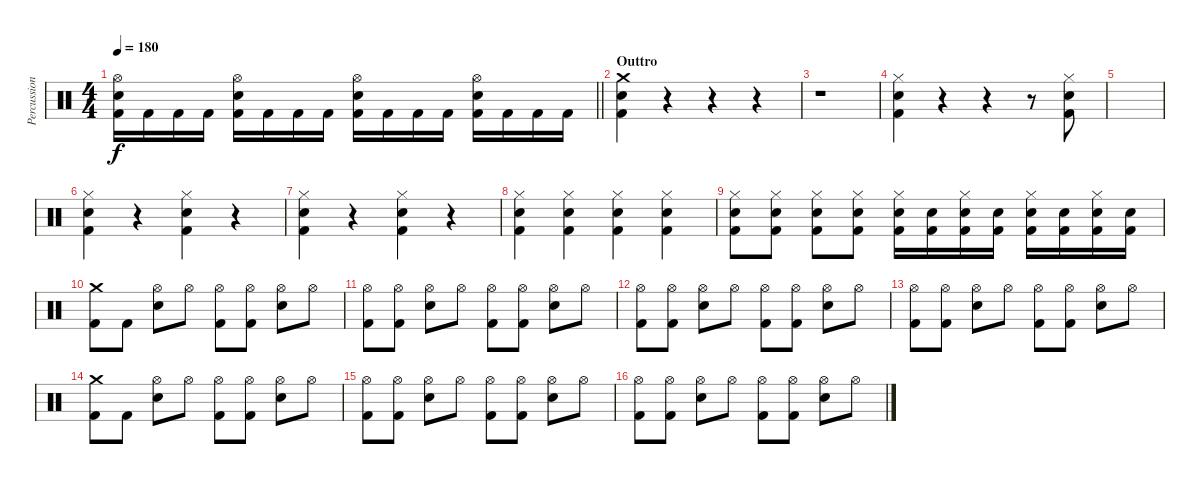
\track ("Percussion" "Percussion") {instrument percussion}
\staff {score}
\articulation defaults
\ts (4 4)
\tempo 180
\clef neutral
\barLineRight lightlight
\ks c
("Hi-Hat (open)" "Electric Snare (hit)" "Kick (hit) 2").16{dy f} "Kick (hit) 2".16 "Kick (hit) 2".16 "Kick (hit) 2".16 ("Hi-Hat (open)" "Electric Snare (hit)" "Kick (hit) 2").16 "Kick (hit) 2".16 "Kick (hit) 2".16 "Kick (hit) 2".16 ("Hi-Hat (open)" "Electric Snare (hit)" "Kick (hit) 2").16 "Kick (hit) 2".16 "Kick (hit) 2".16 "Kick (hit) 2".16 ("Hi-Hat (open)" "Electric Snare (hit)" "Kick (hit) 2").16 "Kick (hit) 2".16 "Kick (hit) 2".16 "Kick (hit) 2".16 |
\section ("" "Outtro")
("Crash medium (hit)" "Electric Snare (hit)" "Kick (hit) 2").4 r.4 r.4 r.4 |
r.1 |
("Hi-Hat (closed)" "Electric Snare (hit)" "Kick (hit) 2").4 r.4 r.4 r.8 ("Hi-Hat (closed)" "Electric Snare (hit)" "Kick (hit) 2").8 |
|
("Hi-Hat (closed)" "Electric Snare (hit)" "Kick (hit) 2").4 r.4 ("Hi-Hat (closed)" "Electric Snare (hit)" "Kick (hit) 2").4 r.4 |
("Hi-Hat (closed)" "Electric Snare (hit)" "Kick (hit) 2").4 r.4 ("Hi-Hat (closed)" "Electric Snare (hit)" "Kick (hit) 2").4 r.4 |
("Hi-Hat (closed)" "Electric Snare (hit)" "Kick (hit) 2").4 ("Hi-Hat (closed)" "Electric Snare (hit)" "Kick (hit) 2").4 ("Hi-Hat (closed)" "Electric Snare (hit)" "Kick (hit) 2").4 ("Hi-Hat (closed)" "Electric Snare (hit)" "Kick (hit) 2").4 |
("Hi-Hat (closed)" "Electric Snare (hit)" "Kick (hit) 2").8 ("Hi-Hat (closed)" "Electric Snare (hit)" "Kick (hit) 2").8 ("Hi-Hat (closed)" "Electric Snare (hit)" "Kick (hit) 2").8 ("Hi-Hat (closed)" "Electric Snare (hit)" "Kick (hit) 2").8 ("Hi-Hat (closed)" "Electric Snare (hit)" "Kick (hit) 2").16 ("Electric Snare (hit)" "Kick (hit) 2").16 ("Hi-Hat (closed)" "Electric Snare (hit)" "Kick (hit) 2").16 ("Electric Snare (hit)" "Kick (hit) 2").16 ("Hi-Hat (closed)" "Electric Snare (hit)" "Kick (hit) 2").16 ("Electric Snare (hit)" "Kick (hit) 2").16 ("Hi-Hat (closed)" "Electric Snare (hit)" "Kick (hit) 2").16 ("Electric Snare (hit)" "Kick (hit) 2").16 |
("Crash medium (hit)" "Kick (hit) 2").8 "Kick (hit) 2".8 ("Hi-Hat (open)" "Electric Snare (hit)").8 "Hi-Hat (open)".8 ("Hi-Hat (open)" "Kick (hit) 2").8 ("Hi-Hat (open)" "Kick (hit) 2").8 ("Hi-Hat (open)" "Electric Snare (hit)").8 "Hi-Hat (open)".8 |
("Hi-Hat (open)" "Kick (hit) 2").8 ("Hi-Hat (open)" "Kick (hit) 2").8 ("Hi-Hat (open)" "Electric Snare (hit)").8 "Hi-Hat (open)".8 ("Hi-Hat (open)" "Kick (hit) 2").8 ("Hi-Hat (open)" "Kick (hit) 2").8 ("Hi-Hat (open)" "Electric Snare (hit)").8 "Hi-Hat (open)".8 |
("Hi-Hat (open)" "Kick (hit) 2").8 ("Hi-Hat (open)" "Kick (hit) 2").8 ("Hi-Hat (open)" "Electric Snare (hit)").8 "Hi-Hat (open)".8 ("Hi-Hat (open)" "Kick (hit) 2").8 ("Hi-Hat (open)" "Kick (hit) 2").8 ("Hi-Hat (open)" "Electric Snare (hit)").8 "Hi-Hat (open)".8 |
("Hi-Hat (open)" "Kick (hit) 2").8 ("Hi-Hat (open)" "Kick (hit) 2").8 ("Hi-Hat (open)" "Electric Snare (hit)").8 "Hi-Hat (open)".8 ("Hi-Hat (open)" "Kick (hit) 2").8 ("Hi-Hat (open)" "Kick (hit) 2").8 ("Hi-Hat (open)" "Electric Snare (hit)").8 "Hi-Hat (open)".8 |
("Crash medium (hit)" "Kick (hit) 2").8 "Kick (hit) 2".8 ("Hi-Hat (open)" "Electric Snare (hit)").8 "Hi-Hat (open)".8 ("Hi-Hat (open)" "Kick (hit) 2").8 ("Hi-Hat (open)" "Kick (hit) 2").8 ("Hi-Hat (open)" "Electric Snare (hit)").8 "Hi-Hat (open)".8 |
("Hi-Hat (open)" "Kick (hit) 2").8 ("Hi-Hat (open)" "Kick (hit) 2").8 ("Hi-Hat (open)" "Electric Snare (hit)").8 "Hi-Hat (open)".8 ("Hi-Hat (open)" "Kick (hit) 2").8 ("Hi-Hat (open)" "Kick (hit) 2").8 ("Hi-Hat (open)" "Electric Snare (hit)").8 "Hi-Hat (open)".8 |
("Hi-Hat (open)" "Kick (hit) 2").8 ("Hi-Hat (open)" "Kick (hit) 2").8 ("Hi-Hat (open)" "Electric Snare (hit)").8 "Hi-Hat (open)".8 ("Hi-Hat (open)" "Kick (hit) 2").8 ("Hi-Hat (open)" "Kick (hit) 2").8 ("Hi-Hat (open)" "Electric Snare (hit)").8 "Hi-Hat (open)".8
